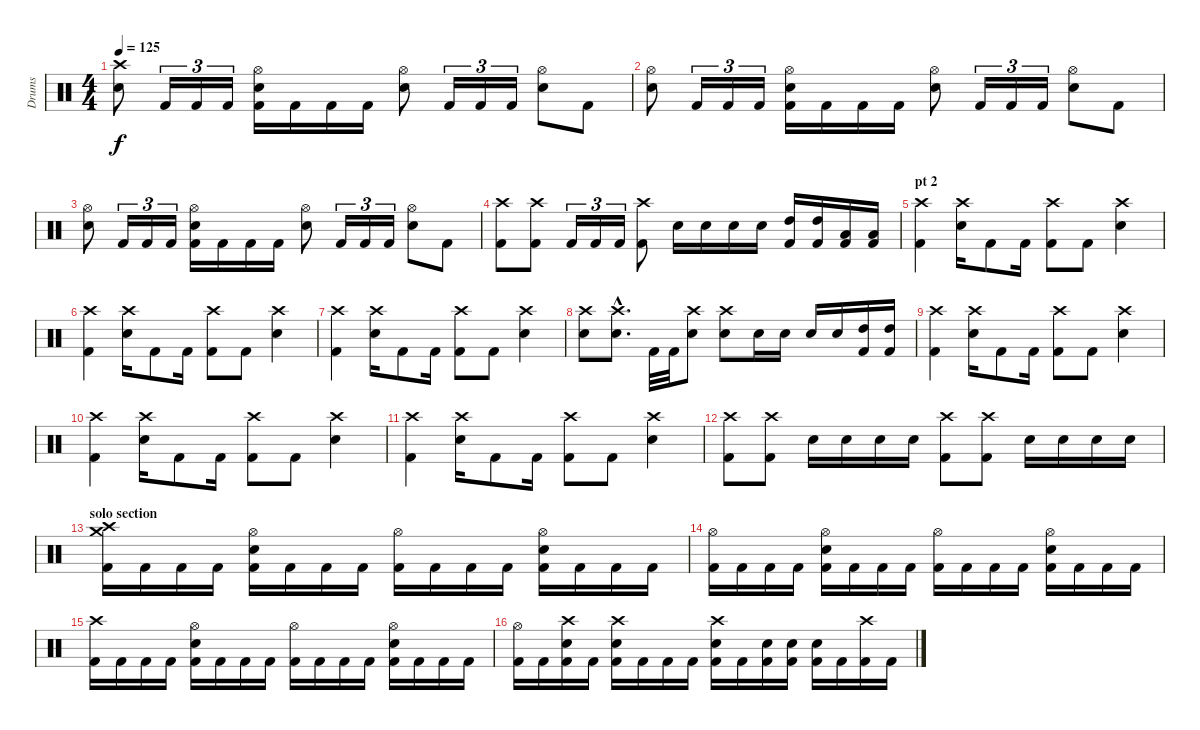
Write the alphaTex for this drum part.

\track ("Drums" "Drums") {instrument percussion}
\staff {score}
\articulation defaults
\ts (4 4)
\tempo 125
\clef neutral
\ks c
("Crash high (hit)" "Electric Snare (hit)").8{dy f} "Kick (hit) 2".16{tu (3 2)} "Kick (hit) 2".16{tu (3 2)} "Kick (hit) 2".16{tu (3 2)} ("Hi-Hat (open)" "Electric Snare (hit)" "Kick (hit) 2").16 "Kick (hit) 2".16 "Kick (hit) 2".16 "Kick (hit) 2".16 ("Hi-Hat (open)" "Electric Snare (hit)").8 "Kick (hit) 2".16{tu (3 2)} "Kick (hit) 2".16{tu (3 2)} "Kick (hit) 2".16{tu (3 2)} ("Hi-Hat (open)" "Electric Snare (hit)").8 "Kick (hit) 2".8 |
("Hi-Hat (open)" "Electric Snare (hit)").8 "Kick (hit) 2".16{tu (3 2)} "Kick (hit) 2".16{tu (3 2)} "Kick (hit) 2".16{tu (3 2)} ("Hi-Hat (open)" "Electric Snare (hit)" "Kick (hit) 2").16 "Kick (hit) 2".16 "Kick (hit) 2".16 "Kick (hit) 2".16 ("Hi-Hat (open)" "Electric Snare (hit)").8 "Kick (hit) 2".16{tu (3 2)} "Kick (hit) 2".16{tu (3 2)} "Kick (hit) 2".16{tu (3 2)} ("Hi-Hat (open)" "Electric Snare (hit)").8 "Kick (hit) 2".8 |
("Hi-Hat (open)" "Electric Snare (hit)").8 "Kick (hit) 2".16{tu (3 2)} "Kick (hit) 2".16{tu (3 2)} "Kick (hit) 2".16{tu (3 2)} ("Hi-Hat (open)" "Electric Snare (hit)" "Kick (hit) 2").16 "Kick (hit) 2".16 "Kick (hit) 2".16 "Kick (hit) 2".16 ("Hi-Hat (open)" "Electric Snare (hit)").8 "Kick (hit) 2".16{tu (3 2)} "Kick (hit) 2".16{tu (3 2)} "Kick (hit) 2".16{tu (3 2)} ("Hi-Hat (open)" "Electric Snare (hit)").8 "Kick (hit) 2".8 |
("Crash high (hit)" "Kick (hit) 2").8 ("Crash high (hit)" "Kick (hit) 2").8 "Kick (hit) 2".16{tu (3 2)} "Kick (hit) 2".16{tu (3 2)} "Kick (hit) 2".16{tu (3 2)} ("Crash high (hit)" "Kick (hit) 2").8 "Electric Snare (hit)".16 "Electric Snare (hit)".16 "Electric Snare (hit)".16 "Electric Snare (hit)".16 ("High Tom (hit)" "Kick (hit) 2").16 ("High Tom (hit)" "Kick (hit) 2").16 ("Low Tom (hit)" "Kick (hit) 2").16 ("Low Tom (hit)" "Kick (hit) 2").16 |
\section ("" "pt 2")
("Crash high (hit)" "Kick (hit) 2").4 ("Crash high (hit)" "Electric Snare (hit)").16 "Kick (hit) 2".8 "Kick (hit) 2".16 ("Crash high (hit)" "Kick (hit) 2").8 "Kick (hit) 2".8 ("Crash high (hit)" "Electric Snare (hit)").4 |
("Crash high (hit)" "Kick (hit) 2").4 ("Crash high (hit)" "Electric Snare (hit)").16 "Kick (hit) 2".8 "Kick (hit) 2".16 ("Crash high (hit)" "Kick (hit) 2").8 "Kick (hit) 2".8 ("Crash high (hit)" "Electric Snare (hit)").4 |
("Crash high (hit)" "Kick (hit) 2").4 ("Crash high (hit)" "Electric Snare (hit)").16 "Kick (hit) 2".8 "Kick (hit) 2".16 ("Crash high (hit)" "Kick (hit) 2").8 "Kick (hit) 2".8 ("Crash high (hit)" "Electric Snare (hit)").4 |
("Crash high (hit)" "Electric Snare (hit)").8 ("Crash high (hit)"{hac} "Electric Snare (hit)"{hac}).8{d} "Kick (hit) 2".32 "Kick (hit) 2".32 ("Crash high (hit)" "Electric Snare (hit)").8 ("Crash high (hit)" "Electric Snare (hit)").8 "Electric Snare (hit)".16 "Electric Snare (hit)".16 "Electric Snare (hit)".16 "Electric Snare (hit)".16 ("High Tom (hit)" "Kick (hit) 2").16 ("High Tom (hit)" "Kick (hit) 2").16 |
("Crash high (hit)" "Kick (hit) 2").4 ("Crash high (hit)" "Electric Snare (hit)").16 "Kick (hit) 2".8 "Kick (hit) 2".16 ("Crash high (hit)" "Kick (hit) 2").8 "Kick (hit) 2".8 ("Crash high (hit)" "Electric Snare (hit)").4 |
("Crash high (hit)" "Kick (hit) 2").4 ("Crash high (hit)" "Electric Snare (hit)").16 "Kick (hit) 2".8 "Kick (hit) 2".16 ("Crash high (hit)" "Kick (hit) 2").8 "Kick (hit) 2".8 ("Crash high (hit)" "Electric Snare (hit)").4 |
("Crash high (hit)" "Kick (hit) 2").4 ("Crash high (hit)" "Electric Snare (hit)").16 "Kick (hit) 2".8 "Kick (hit) 2".16 ("Crash high (hit)" "Kick (hit) 2").8 "Kick (hit) 2".8 ("Crash high (hit)" "Electric Snare (hit)").4 |
("Crash high (hit)" "Kick (hit) 2").8 ("Crash high (hit)" "Kick (hit) 2").8 "Electric Snare (hit)".16 "Electric Snare (hit)".16 "Electric Snare (hit)".16 "Electric Snare (hit)".16 ("Crash high (hit)" "Kick (hit) 2").8 ("Crash high (hit)" "Kick (hit) 2").8 "Electric Snare (hit)".16 "Electric Snare (hit)".16 "Electric Snare (hit)".16 "Electric Snare (hit)".16 |
\section ("" "solo section")
("Crash high (hit)" "Crash medium (hit)" "Kick (hit) 2").16 "Kick (hit) 2".16 "Kick (hit) 2".16 "Kick (hit) 2".16 ("Hi-Hat (open)" "Electric Snare (hit)" "Kick (hit) 2").16 "Kick (hit) 2".16 "Kick (hit) 2".16 "Kick (hit) 2".16 ("Hi-Hat (open)" "Kick (hit) 2").16 "Kick (hit) 2".16 "Kick (hit) 2".16 "Kick (hit) 2".16 ("Hi-Hat (open)" "Electric Snare (hit)" "Kick (hit) 2").16 "Kick (hit) 2".16 "Kick (hit) 2".16 "Kick (hit) 2".16 |
("Hi-Hat (open)" "Kick (hit) 2").16 "Kick (hit) 2".16 "Kick (hit) 2".16 "Kick (hit) 2".16 ("Hi-Hat (open)" "Electric Snare (hit)" "Kick (hit) 2").16 "Kick (hit) 2".16 "Kick (hit) 2".16 "Kick (hit) 2".16 ("Hi-Hat (open)" "Kick (hit) 2").16 "Kick (hit) 2".16 "Kick (hit) 2".16 "Kick (hit) 2".16 ("Hi-Hat (open)" "Electric Snare (hit)" "Kick (hit) 2").16 "Kick (hit) 2".16 "Kick (hit) 2".16 "Kick (hit) 2".16 |
("Crash high (hit)" "Kick (hit) 2").16 "Kick (hit) 2".16 "Kick (hit) 2".16 "Kick (hit) 2".16 ("Hi-Hat (open)" "Electric Snare (hit)" "Kick (hit) 2").16 "Kick (hit) 2".16 "Kick (hit) 2".16 "Kick (hit) 2".16 ("Hi-Hat (open)" "Kick (hit) 2").16 "Kick (hit) 2".16 "Kick (hit) 2".16 "Kick (hit) 2".16 ("Hi-Hat (open)" "Electric Snare (hit)" "Kick (hit) 2").16 "Kick (hit) 2".16 "Kick (hit) 2".16 "Kick (hit) 2".16 |
("Hi-Hat (open)" "Kick (hit) 2").16 "Kick (hit) 2".16 ("Crash high (hit)" "Electric Snare (hit)" "Kick (hit) 2").16 "Kick (hit) 2".16 ("Crash high (hit)" "Electric Snare (hit)" "Kick (hit) 2").16 "Kick (hit) 2".16 "Kick (hit) 2".16 "Kick (hit) 2".16 ("Crash high (hit)" "Electric Snare (hit)" "Kick (hit) 2").16 "Kick (hit) 2".16 ("Electric Snare (hit)" "Kick (hit) 2").16 ("Electric Snare (hit)" "Kick (hit) 2").16 ("Electric Snare (hit)" "Kick (hit) 2").16 "Kick (hit) 2".16 ("Crash high (hit)" "Kick (hit) 2").16 "Kick (hit) 2".16
